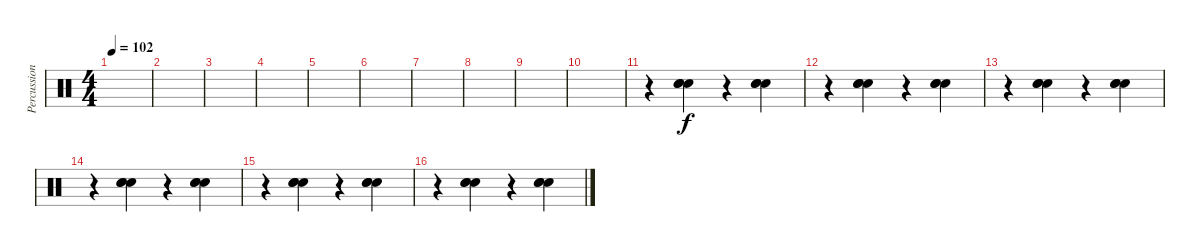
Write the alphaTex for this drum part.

\track ("Percussion" "Percussion") {instrument percussion}
\staff {score}
\articulation defaults
\ts (4 4)
\tempo 102
\clef neutral
\ks c
|
|
|
|
|
|
|
|
|
|
r.4 ("Electric Snare (hit)" "Hand Clap (hit)" "Snare (hit) 2").4 r.4 ("Electric Snare (hit)" "Hand Clap (hit)" "Snare (hit) 2").4 |
r.4 ("Electric Snare (hit)" "Hand Clap (hit)" "Snare (hit) 2").4 r.4 ("Electric Snare (hit)" "Hand Clap (hit)" "Snare (hit) 2").4 |
r.4 ("Electric Snare (hit)" "Hand Clap (hit)" "Snare (hit) 2").4 r.4 ("Electric Snare (hit)" "Hand Clap (hit)" "Snare (hit) 2").4 |
r.4 ("Electric Snare (hit)" "Hand Clap (hit)" "Snare (hit) 2").4 r.4 ("Electric Snare (hit)" "Hand Clap (hit)" "Snare (hit) 2").4 |
r.4 ("Electric Snare (hit)" "Hand Clap (hit)" "Snare (hit) 2").4 r.4 ("Electric Snare (hit)" "Hand Clap (hit)" "Snare (hit) 2").4 |
r.4 ("Electric Snare (hit)" "Hand Clap (hit)" "Snare (hit) 2").4 r.4 ("Electric Snare (hit)" "Hand Clap (hit)" "Snare (hit) 2").4
